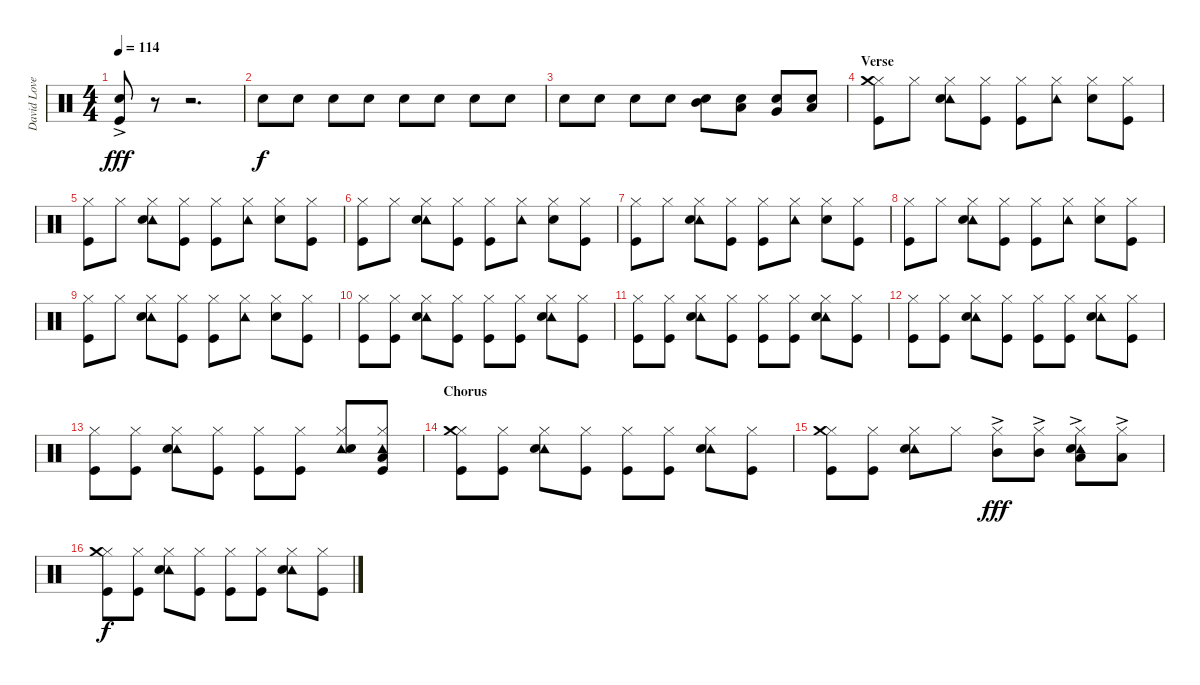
\track ("David Lovering" "David Love") {instrument percussion}
\staff {score}
\articulation defaults
\ts (4 4)
\tempo 114
\clef neutral
\ks c
("Snare (hit) 2"{ac} "Kick (hit)").8{dy fff} r.8 r.2{d} |
"Snare (hit) 2".8{dy f} "Snare (hit) 2".8 "Snare (hit) 2".8 "Snare (hit) 2".8 "Snare (hit) 2".8 "Snare (hit) 2".8 "Snare (hit) 2".8 "Snare (hit) 2".8 |
"Snare (hit) 2".8 "Snare (hit) 2".8 "Snare (hit) 2".8 "Snare (hit) 2".8 ("Snare (hit) 2" "Mid Tom (hit)").8 ("Snare (hit) 2" "Low Tom (hit)").8 ("Snare (hit) 2" "Very Low Tom (hit)").8 ("Snare (hit) 2" "Low Floor Tom (hit)").8 |
\section ("" "Verse")
("Hi-Hat (closed)" "Crash medium (hit)" "Kick (hit)").8 "Hi-Hat (closed)".8 ("Hi-Hat (closed)" "Tambourine (hit)" "Snare (hit) 2").8 ("Hi-Hat (closed)" "Kick (hit)").8 ("Hi-Hat (closed)" "Kick (hit)").8 ("Hi-Hat (closed)" "Tambourine (hit)").8 ("Hi-Hat (closed)" "Snare (hit) 2").8 ("Hi-Hat (closed)" "Kick (hit)").8 |
("Hi-Hat (closed)" "Kick (hit)").8 "Hi-Hat (closed)".8 ("Hi-Hat (closed)" "Tambourine (hit)" "Snare (hit) 2").8 ("Hi-Hat (closed)" "Kick (hit)").8 ("Hi-Hat (closed)" "Kick (hit)").8 ("Hi-Hat (closed)" "Tambourine (hit)").8 ("Hi-Hat (closed)" "Snare (hit) 2").8 ("Hi-Hat (closed)" "Kick (hit)").8 |
("Hi-Hat (closed)" "Kick (hit)").8 "Hi-Hat (closed)".8 ("Hi-Hat (closed)" "Tambourine (hit)" "Snare (hit) 2").8 ("Hi-Hat (closed)" "Kick (hit)").8 ("Hi-Hat (closed)" "Kick (hit)").8 ("Hi-Hat (closed)" "Tambourine (hit)").8 ("Hi-Hat (closed)" "Snare (hit) 2").8 ("Hi-Hat (closed)" "Kick (hit)").8 |
("Hi-Hat (closed)" "Kick (hit)").8 "Hi-Hat (closed)".8 ("Hi-Hat (closed)" "Tambourine (hit)" "Snare (hit) 2").8 ("Hi-Hat (closed)" "Kick (hit)").8 ("Hi-Hat (closed)" "Kick (hit)").8 ("Hi-Hat (closed)" "Tambourine (hit)").8 ("Hi-Hat (closed)" "Snare (hit) 2").8 ("Hi-Hat (closed)" "Kick (hit)").8 |
("Hi-Hat (closed)" "Kick (hit)").8 "Hi-Hat (closed)".8 ("Hi-Hat (closed)" "Tambourine (hit)" "Snare (hit) 2").8 ("Hi-Hat (closed)" "Kick (hit)").8 ("Hi-Hat (closed)" "Kick (hit)").8 ("Hi-Hat (closed)" "Tambourine (hit)").8 ("Hi-Hat (closed)" "Snare (hit) 2").8 ("Hi-Hat (closed)" "Kick (hit)").8 |
("Hi-Hat (closed)" "Kick (hit)").8 "Hi-Hat (closed)".8 ("Hi-Hat (closed)" "Tambourine (hit)" "Snare (hit) 2").8 ("Hi-Hat (closed)" "Kick (hit)").8 ("Hi-Hat (closed)" "Kick (hit)").8 ("Hi-Hat (closed)" "Tambourine (hit)").8 ("Hi-Hat (closed)" "Snare (hit) 2").8 ("Hi-Hat (closed)" "Kick (hit)").8 |
("Hi-Hat (closed)" "Kick (hit)").8 ("Hi-Hat (closed)" "Kick (hit)").8 ("Hi-Hat (closed)" "Tambourine (hit)" "Snare (hit) 2").8 ("Hi-Hat (closed)" "Kick (hit)").8 ("Hi-Hat (closed)" "Kick (hit)").8 ("Hi-Hat (closed)" "Kick (hit)").8 ("Hi-Hat (closed)" "Tambourine (hit)" "Snare (hit) 2").8 ("Hi-Hat (closed)" "Kick (hit)").8 |
("Hi-Hat (closed)" "Kick (hit)").8 ("Hi-Hat (closed)" "Kick (hit)").8 ("Hi-Hat (closed)" "Tambourine (hit)" "Snare (hit) 2").8 ("Hi-Hat (closed)" "Kick (hit)").8 ("Hi-Hat (closed)" "Kick (hit)").8 ("Hi-Hat (closed)" "Kick (hit)").8 ("Hi-Hat (closed)" "Tambourine (hit)" "Snare (hit) 2").8 ("Hi-Hat (closed)" "Kick (hit)").8 |
("Hi-Hat (closed)" "Kick (hit)").8 ("Hi-Hat (closed)" "Kick (hit)").8 ("Hi-Hat (closed)" "Tambourine (hit)" "Snare (hit) 2").8 ("Hi-Hat (closed)" "Kick (hit)").8 ("Hi-Hat (closed)" "Kick (hit)").8 ("Hi-Hat (closed)" "Kick (hit)").8 ("Hi-Hat (closed)" "Tambourine (hit)" "Snare (hit) 2").8 ("Hi-Hat (closed)" "Kick (hit)").8 |
("Hi-Hat (closed)" "Kick (hit)").8 ("Hi-Hat (closed)" "Kick (hit)").8 ("Hi-Hat (closed)" "Tambourine (hit)" "Snare (hit) 2").8 ("Hi-Hat (closed)" "Kick (hit)").8 ("Hi-Hat (closed)" "Kick (hit)").8 ("Hi-Hat (closed)" "Kick (hit)").8 ("Hi-Hat (closed)" "Tambourine (hit)" "Snare (hit) 2").8 ("Hi-Hat (closed)" "Tambourine (hit)" "Low Tom (hit)" "Kick (hit)").8 |
\section ("" "Chorus")
("Hi-Hat (closed)" "Crash medium (hit)" "Kick (hit)").8 ("Hi-Hat (closed)" "Kick (hit)").8 ("Hi-Hat (closed)" "Tambourine (hit)" "Snare (hit) 2").8 ("Hi-Hat (closed)" "Kick (hit)").8 ("Hi-Hat (closed)" "Kick (hit)").8 ("Hi-Hat (closed)" "Kick (hit)").8 ("Hi-Hat (closed)" "Tambourine (hit)" "Snare (hit) 2").8 ("Hi-Hat (closed)" "Kick (hit)").8 |
("Hi-Hat (closed)" "Crash medium (hit)" "Kick (hit)").8 ("Hi-Hat (closed)" "Kick (hit)").8 ("Hi-Hat (closed)" "Tambourine (hit)" "Snare (hit) 2").8 "Hi-Hat (closed)".8 ("Hi-Hat (closed)" "Mid Tom (hit)"{ac}).8{dy fff} ("Hi-Hat (closed)" "Mid Tom (hit)"{ac}).8 ("Hi-Hat (closed)" "Tambourine (hit)" "Snare (hit) 2" "Low Tom (hit)"{ac}).8 ("Hi-Hat (closed)" "Low Tom (hit)"{ac}).8 |
("Hi-Hat (closed)" "Crash medium (hit)" "Kick (hit)").8{dy f} ("Hi-Hat (closed)" "Kick (hit)").8 ("Hi-Hat (closed)" "Tambourine (hit)" "Snare (hit) 2").8 ("Hi-Hat (closed)" "Kick (hit)").8 ("Hi-Hat (closed)" "Kick (hit)").8 ("Hi-Hat (closed)" "Kick (hit)").8 ("Hi-Hat (closed)" "Tambourine (hit)" "Snare (hit) 2").8 ("Hi-Hat (closed)" "Kick (hit)").8
